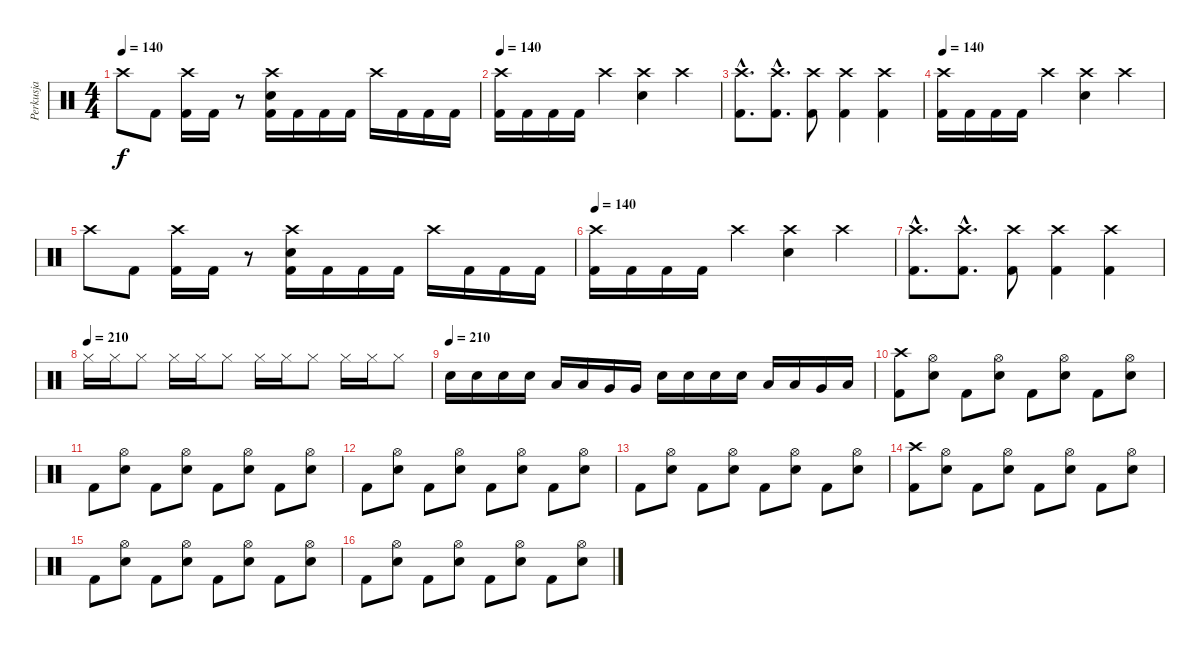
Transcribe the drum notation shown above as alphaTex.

\track ("Perkusja" "Perkusja") {instrument percussion}
\staff {score}
\articulation defaults
\ts (4 4)
\tempo 140
\clef neutral
\ks c "Crash high (hit)".8{dy f} "Kick (hit) 2".8
("Crash high (hit)" "Kick (hit) 2").16 "Kick (hit) 2".16 r.8 ("Crash high (hit)" "Electric Snare (hit)" "Kick (hit) 2").16 "Kick (hit) 2".16 "Kick (hit) 2".16 "Kick (hit) 2".16 "Crash high (hit)".16 "Kick (hit) 2".16 "Kick (hit) 2".16 "Kick (hit) 2".16 |
\tempo 140
("Crash high (hit)" "Kick (hit) 2").16 "Kick (hit) 2".16 "Kick (hit) 2".16 "Kick (hit) 2".16 "Crash high (hit)".4 ("Crash high (hit)" "Electric Snare (hit)").4 "Crash high (hit)".4 |
("Crash high (hit)"{hac} "Kick (hit) 2"{hac}).8{d} ("Crash high (hit)"{hac} "Kick (hit) 2"{hac}).8{d} ("Crash high (hit)" "Kick (hit) 2").8 ("Crash high (hit)" "Kick (hit) 2").4 ("Crash high (hit)" "Kick (hit) 2").4 |
\tempo 140
("Crash high (hit)" "Kick (hit) 2").16 "Kick (hit) 2".16 "Kick (hit) 2".16 "Kick (hit) 2".16 "Crash high (hit)".4 ("Crash high (hit)" "Electric Snare (hit)").4 "Crash high (hit)".4 |
"Crash high (hit)".8 "Kick (hit) 2".8 ("Crash high (hit)" "Kick (hit) 2").16 "Kick (hit) 2".16 r.8 ("Crash high (hit)" "Electric Snare (hit)" "Kick (hit) 2").16 "Kick (hit) 2".16 "Kick (hit) 2".16 "Kick (hit) 2".16 "Crash high (hit)".16 "Kick (hit) 2".16 "Kick (hit) 2".16 "Kick (hit) 2".16 |
\tempo 140
("Crash high (hit)" "Kick (hit) 2").16 "Kick (hit) 2".16 "Kick (hit) 2".16 "Kick (hit) 2".16 "Crash high (hit)".4 ("Crash high (hit)" "Electric Snare (hit)").4 "Crash high (hit)".4 |
("Crash high (hit)"{hac} "Kick (hit) 2"{hac}).8{d} ("Crash high (hit)"{hac} "Kick (hit) 2"{hac}).8{d} ("Crash high (hit)" "Kick (hit) 2").8 ("Crash high (hit)" "Kick (hit) 2").4 ("Crash high (hit)" "Kick (hit) 2").4 |
\tempo (210)
"Hi-Hat (closed)".16 "Hi-Hat (closed)".16 "Hi-Hat (closed)".8 "Hi-Hat (closed)".16 "Hi-Hat (closed)".16 "Hi-Hat (closed)".8 "Hi-Hat (closed)".16 "Hi-Hat (closed)".16 "Hi-Hat (closed)".8 "Hi-Hat (closed)".16 "Hi-Hat (closed)".16 "Hi-Hat (closed)".8 |
\tempo (210)
"Electric Snare (hit)".16 "Electric Snare (hit)".16 "Electric Snare (hit)".16 "Electric Snare (hit)".16 "Low Tom (hit)".16 "Low Tom (hit)".16 "Very Low Tom (hit)".16 "Very Low Tom (hit)".16 "Electric Snare (hit)".16 "Electric Snare (hit)".16 "Electric Snare (hit)".16 "Electric Snare (hit)".16 "Low Tom (hit)".16 "Low Tom (hit)".16 "Very Low Tom (hit)".16 "Low Floor Tom (hit)".16 |
("Crash high (hit)" "Kick (hit) 2").8 ("Hi-Hat (open)" "Electric Snare (hit)").8 "Kick (hit) 2".8 ("Hi-Hat (open)" "Electric Snare (hit)").8 "Kick (hit) 2".8 ("Hi-Hat (open)" "Electric Snare (hit)").8 "Kick (hit) 2".8 ("Hi-Hat (open)" "Electric Snare (hit)").8 |
"Kick (hit) 2".8 ("Hi-Hat (open)" "Electric Snare (hit)").8 "Kick (hit) 2".8 ("Hi-Hat (open)" "Electric Snare (hit)").8 "Kick (hit) 2".8 ("Hi-Hat (open)" "Electric Snare (hit)").8 "Kick (hit) 2".8 ("Hi-Hat (open)" "Electric Snare (hit)").8 |
"Kick (hit) 2".8 ("Hi-Hat (open)" "Electric Snare (hit)").8 "Kick (hit) 2".8 ("Hi-Hat (open)" "Electric Snare (hit)").8 "Kick (hit) 2".8 ("Hi-Hat (open)" "Electric Snare (hit)").8 "Kick (hit) 2".8 ("Hi-Hat (open)" "Electric Snare (hit)").8 |
"Kick (hit) 2".8 ("Hi-Hat (open)" "Electric Snare (hit)").8 "Kick (hit) 2".8 ("Hi-Hat (open)" "Electric Snare (hit)").8 "Kick (hit) 2".8 ("Hi-Hat (open)" "Electric Snare (hit)").8 "Kick (hit) 2".8 ("Hi-Hat (open)" "Electric Snare (hit)").8 |
("Crash high (hit)" "Kick (hit) 2").8 ("Hi-Hat (open)" "Electric Snare (hit)").8 "Kick (hit) 2".8 ("Hi-Hat (open)" "Electric Snare (hit)").8 "Kick (hit) 2".8 ("Hi-Hat (open)" "Electric Snare (hit)").8 "Kick (hit) 2".8 ("Hi-Hat (open)" "Electric Snare (hit)").8 |
"Kick (hit) 2".8 ("Hi-Hat (open)" "Electric Snare (hit)").8 "Kick (hit) 2".8 ("Hi-Hat (open)" "Electric Snare (hit)").8 "Kick (hit) 2".8 ("Hi-Hat (open)" "Electric Snare (hit)").8 "Kick (hit) 2".8 ("Hi-Hat (open)" "Electric Snare (hit)").8 |
"Kick (hit) 2".8 ("Hi-Hat (open)" "Electric Snare (hit)").8 "Kick (hit) 2".8 ("Hi-Hat (open)" "Electric Snare (hit)").8 "Kick (hit) 2".8 ("Hi-Hat (open)" "Electric Snare (hit)").8 "Kick (hit) 2".8 ("Hi-Hat (open)" "Electric Snare (hit)").8
